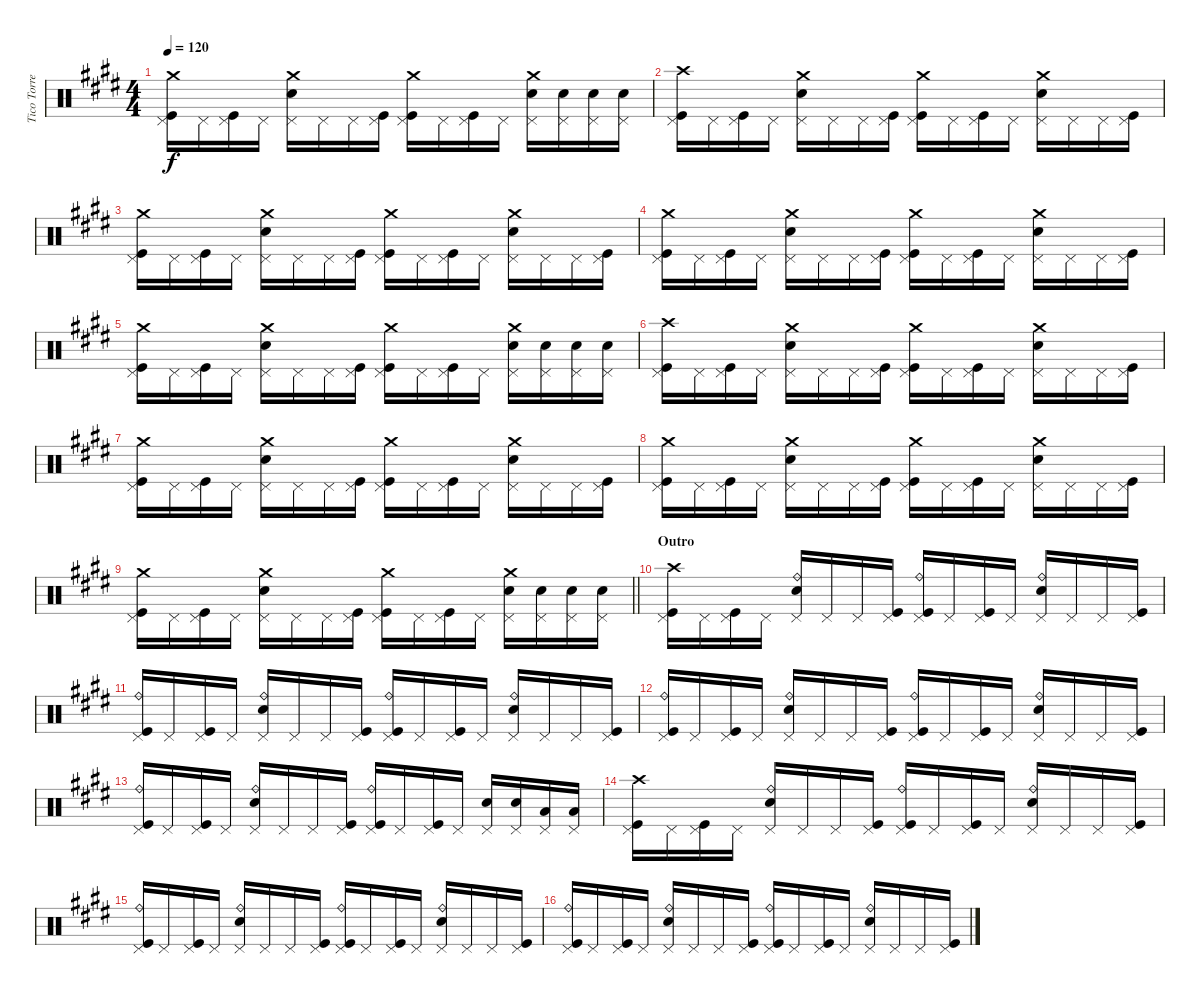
\track ("Tico Torres (Drums)" "Tico Torre") {instrument percussion}
\staff {score}
\articulation defaults
\ts (4 4)
\tempo 120
\clef neutral
\ks c#minor
("Crash medium (hit)" "Pedal Hi-Hat (hit)" "Kick (hit)").16{dy f} "Pedal Hi-Hat (hit)".16 ("Pedal Hi-Hat (hit)" "Kick (hit)").16 "Pedal Hi-Hat (hit)".16 ("Crash medium (hit)" "Electric Snare (hit)" "Pedal Hi-Hat (hit)").16 "Pedal Hi-Hat (hit)".16 "Pedal Hi-Hat (hit)".16 ("Pedal Hi-Hat (hit)" "Kick (hit)").16 ("Crash medium (hit)" "Pedal Hi-Hat (hit)" "Kick (hit)").16 "Pedal Hi-Hat (hit)".16 ("Pedal Hi-Hat (hit)" "Kick (hit)").16 "Pedal Hi-Hat (hit)".16 ("Crash medium (hit)" "Electric Snare (hit)" "Pedal Hi-Hat (hit)").16 ("Electric Snare (hit)" "Pedal Hi-Hat (hit)").16 ("Electric Snare (hit)" "Pedal Hi-Hat (hit)").16 ("Electric Snare (hit)" "Pedal Hi-Hat (hit)").16 |
("Crash high (hit)" "Pedal Hi-Hat (hit)" "Kick (hit)").16 "Pedal Hi-Hat (hit)".16 ("Pedal Hi-Hat (hit)" "Kick (hit)").16 "Pedal Hi-Hat (hit)".16 ("Crash medium (hit)" "Electric Snare (hit)" "Pedal Hi-Hat (hit)").16 "Pedal Hi-Hat (hit)".16 "Pedal Hi-Hat (hit)".16 ("Pedal Hi-Hat (hit)" "Kick (hit)").16 ("Crash medium (hit)" "Pedal Hi-Hat (hit)" "Kick (hit)").16 "Pedal Hi-Hat (hit)".16 ("Pedal Hi-Hat (hit)" "Kick (hit)").16 "Pedal Hi-Hat (hit)".16 ("Crash medium (hit)" "Electric Snare (hit)" "Pedal Hi-Hat (hit)").16 "Pedal Hi-Hat (hit)".16 "Pedal Hi-Hat (hit)".16 ("Pedal Hi-Hat (hit)" "Kick (hit)").16 |
("Crash medium (hit)" "Pedal Hi-Hat (hit)" "Kick (hit)").16 "Pedal Hi-Hat (hit)".16 ("Pedal Hi-Hat (hit)" "Kick (hit)").16 "Pedal Hi-Hat (hit)".16 ("Crash medium (hit)" "Electric Snare (hit)" "Pedal Hi-Hat (hit)").16 "Pedal Hi-Hat (hit)".16 "Pedal Hi-Hat (hit)".16 ("Pedal Hi-Hat (hit)" "Kick (hit)").16 ("Crash medium (hit)" "Pedal Hi-Hat (hit)" "Kick (hit)").16 "Pedal Hi-Hat (hit)".16 ("Pedal Hi-Hat (hit)" "Kick (hit)").16 "Pedal Hi-Hat (hit)".16 ("Crash medium (hit)" "Electric Snare (hit)" "Pedal Hi-Hat (hit)").16 "Pedal Hi-Hat (hit)".16 "Pedal Hi-Hat (hit)".16 ("Pedal Hi-Hat (hit)" "Kick (hit)").16 |
("Crash medium (hit)" "Pedal Hi-Hat (hit)" "Kick (hit)").16 "Pedal Hi-Hat (hit)".16 ("Pedal Hi-Hat (hit)" "Kick (hit)").16 "Pedal Hi-Hat (hit)".16 ("Crash medium (hit)" "Electric Snare (hit)" "Pedal Hi-Hat (hit)").16 "Pedal Hi-Hat (hit)".16 "Pedal Hi-Hat (hit)".16 ("Pedal Hi-Hat (hit)" "Kick (hit)").16 ("Crash medium (hit)" "Pedal Hi-Hat (hit)" "Kick (hit)").16 "Pedal Hi-Hat (hit)".16 ("Pedal Hi-Hat (hit)" "Kick (hit)").16 "Pedal Hi-Hat (hit)".16 ("Crash medium (hit)" "Electric Snare (hit)" "Pedal Hi-Hat (hit)").16 "Pedal Hi-Hat (hit)".16 "Pedal Hi-Hat (hit)".16 ("Pedal Hi-Hat (hit)" "Kick (hit)").16 |
("Crash medium (hit)" "Pedal Hi-Hat (hit)" "Kick (hit)").16 "Pedal Hi-Hat (hit)".16 ("Pedal Hi-Hat (hit)" "Kick (hit)").16 "Pedal Hi-Hat (hit)".16 ("Crash medium (hit)" "Electric Snare (hit)" "Pedal Hi-Hat (hit)").16 "Pedal Hi-Hat (hit)".16 "Pedal Hi-Hat (hit)".16 ("Pedal Hi-Hat (hit)" "Kick (hit)").16 ("Crash medium (hit)" "Pedal Hi-Hat (hit)" "Kick (hit)").16 "Pedal Hi-Hat (hit)".16 ("Pedal Hi-Hat (hit)" "Kick (hit)").16 "Pedal Hi-Hat (hit)".16 ("Crash medium (hit)" "Electric Snare (hit)" "Pedal Hi-Hat (hit)").16 ("Electric Snare (hit)" "Pedal Hi-Hat (hit)").16 ("Electric Snare (hit)" "Pedal Hi-Hat (hit)").16 ("Electric Snare (hit)" "Pedal Hi-Hat (hit)").16 |
("Crash high (hit)" "Pedal Hi-Hat (hit)" "Kick (hit)").16 "Pedal Hi-Hat (hit)".16 ("Pedal Hi-Hat (hit)" "Kick (hit)").16 "Pedal Hi-Hat (hit)".16 ("Crash medium (hit)" "Electric Snare (hit)" "Pedal Hi-Hat (hit)").16 "Pedal Hi-Hat (hit)".16 "Pedal Hi-Hat (hit)".16 ("Pedal Hi-Hat (hit)" "Kick (hit)").16 ("Crash medium (hit)" "Pedal Hi-Hat (hit)" "Kick (hit)").16 "Pedal Hi-Hat (hit)".16 ("Pedal Hi-Hat (hit)" "Kick (hit)").16 "Pedal Hi-Hat (hit)".16 ("Crash medium (hit)" "Electric Snare (hit)" "Pedal Hi-Hat (hit)").16 "Pedal Hi-Hat (hit)".16 "Pedal Hi-Hat (hit)".16 ("Pedal Hi-Hat (hit)" "Kick (hit)").16 |
("Crash medium (hit)" "Pedal Hi-Hat (hit)" "Kick (hit)").16 "Pedal Hi-Hat (hit)".16 ("Pedal Hi-Hat (hit)" "Kick (hit)").16 "Pedal Hi-Hat (hit)".16 ("Crash medium (hit)" "Electric Snare (hit)" "Pedal Hi-Hat (hit)").16 "Pedal Hi-Hat (hit)".16 "Pedal Hi-Hat (hit)".16 ("Pedal Hi-Hat (hit)" "Kick (hit)").16 ("Crash medium (hit)" "Pedal Hi-Hat (hit)" "Kick (hit)").16 "Pedal Hi-Hat (hit)".16 ("Pedal Hi-Hat (hit)" "Kick (hit)").16 "Pedal Hi-Hat (hit)".16 ("Crash medium (hit)" "Electric Snare (hit)" "Pedal Hi-Hat (hit)").16 "Pedal Hi-Hat (hit)".16 "Pedal Hi-Hat (hit)".16 ("Pedal Hi-Hat (hit)" "Kick (hit)").16 |
("Crash medium (hit)" "Pedal Hi-Hat (hit)" "Kick (hit)").16 "Pedal Hi-Hat (hit)".16 ("Pedal Hi-Hat (hit)" "Kick (hit)").16 "Pedal Hi-Hat (hit)".16 ("Crash medium (hit)" "Electric Snare (hit)" "Pedal Hi-Hat (hit)").16 "Pedal Hi-Hat (hit)".16 "Pedal Hi-Hat (hit)".16 ("Pedal Hi-Hat (hit)" "Kick (hit)").16 ("Crash medium (hit)" "Pedal Hi-Hat (hit)" "Kick (hit)").16 "Pedal Hi-Hat (hit)".16 ("Pedal Hi-Hat (hit)" "Kick (hit)").16 "Pedal Hi-Hat (hit)".16 ("Crash medium (hit)" "Electric Snare (hit)" "Pedal Hi-Hat (hit)").16 "Pedal Hi-Hat (hit)".16 "Pedal Hi-Hat (hit)".16 ("Pedal Hi-Hat (hit)" "Kick (hit)").16 |
\barLineRight lightlight
("Crash medium (hit)" "Pedal Hi-Hat (hit)" "Kick (hit)").16 "Pedal Hi-Hat (hit)".16 ("Pedal Hi-Hat (hit)" "Kick (hit)").16 "Pedal Hi-Hat (hit)".16 ("Crash medium (hit)" "Electric Snare (hit)" "Pedal Hi-Hat (hit)").16 "Pedal Hi-Hat (hit)".16 "Pedal Hi-Hat (hit)".16 ("Pedal Hi-Hat (hit)" "Kick (hit)").16 ("Crash medium (hit)" "Pedal Hi-Hat (hit)" "Kick (hit)").16 "Pedal Hi-Hat (hit)".16 ("Pedal Hi-Hat (hit)" "Kick (hit)").16 "Pedal Hi-Hat (hit)".16 ("Crash medium (hit)" "Electric Snare (hit)" "Pedal Hi-Hat (hit)").16 ("Electric Snare (hit)" "Pedal Hi-Hat (hit)").16 ("Electric Snare (hit)" "Pedal Hi-Hat (hit)").16 ("Electric Snare (hit)" "Pedal Hi-Hat (hit)").16 |
\section ("" "Outro")
("Crash high (hit)" "Pedal Hi-Hat (hit)" "Kick (hit)").16 "Pedal Hi-Hat (hit)".16 ("Pedal Hi-Hat (hit)" "Kick (hit)").16 "Pedal Hi-Hat (hit)".16 ("Ride (bell)" "Electric Snare (hit)" "Pedal Hi-Hat (hit)").16 "Pedal Hi-Hat (hit)".16 "Pedal Hi-Hat (hit)".16 ("Pedal Hi-Hat (hit)" "Kick (hit)").16 ("Ride (bell)" "Pedal Hi-Hat (hit)" "Kick (hit)").16 "Pedal Hi-Hat (hit)".16 ("Pedal Hi-Hat (hit)" "Kick (hit)").16 "Pedal Hi-Hat (hit)".16 ("Ride (bell)" "Electric Snare (hit)" "Pedal Hi-Hat (hit)").16 "Pedal Hi-Hat (hit)".16 "Pedal Hi-Hat (hit)".16 ("Pedal Hi-Hat (hit)" "Kick (hit)").16 |
("Ride (bell)" "Pedal Hi-Hat (hit)" "Kick (hit)").16 "Pedal Hi-Hat (hit)".16 ("Pedal Hi-Hat (hit)" "Kick (hit)").16 "Pedal Hi-Hat (hit)".16 ("Ride (bell)" "Electric Snare (hit)" "Pedal Hi-Hat (hit)").16 "Pedal Hi-Hat (hit)".16 "Pedal Hi-Hat (hit)".16 ("Pedal Hi-Hat (hit)" "Kick (hit)").16 ("Ride (bell)" "Pedal Hi-Hat (hit)" "Kick (hit)").16 "Pedal Hi-Hat (hit)".16 ("Pedal Hi-Hat (hit)" "Kick (hit)").16 "Pedal Hi-Hat (hit)".16 ("Ride (bell)" "Electric Snare (hit)" "Pedal Hi-Hat (hit)").16 "Pedal Hi-Hat (hit)".16 "Pedal Hi-Hat (hit)".16 ("Pedal Hi-Hat (hit)" "Kick (hit)").16 |
("Ride (bell)" "Pedal Hi-Hat (hit)" "Kick (hit)").16 "Pedal Hi-Hat (hit)".16 ("Pedal Hi-Hat (hit)" "Kick (hit)").16 "Pedal Hi-Hat (hit)".16 ("Ride (bell)" "Electric Snare (hit)" "Pedal Hi-Hat (hit)").16 "Pedal Hi-Hat (hit)".16 "Pedal Hi-Hat (hit)".16 ("Pedal Hi-Hat (hit)" "Kick (hit)").16 ("Ride (bell)" "Pedal Hi-Hat (hit)" "Kick (hit)").16 "Pedal Hi-Hat (hit)".16 ("Pedal Hi-Hat (hit)" "Kick (hit)").16 "Pedal Hi-Hat (hit)".16 ("Ride (bell)" "Electric Snare (hit)" "Pedal Hi-Hat (hit)").16 "Pedal Hi-Hat (hit)".16 "Pedal Hi-Hat (hit)".16 ("Pedal Hi-Hat (hit)" "Kick (hit)").16 |
("Ride (bell)" "Pedal Hi-Hat (hit)" "Kick (hit)").16 "Pedal Hi-Hat (hit)".16 ("Pedal Hi-Hat (hit)" "Kick (hit)").16 "Pedal Hi-Hat (hit)".16 ("Ride (bell)" "Electric Snare (hit)" "Pedal Hi-Hat (hit)").16 "Pedal Hi-Hat (hit)".16 "Pedal Hi-Hat (hit)".16 ("Pedal Hi-Hat (hit)" "Kick (hit)").16 ("Ride (bell)" "Pedal Hi-Hat (hit)" "Kick (hit)").16 "Pedal Hi-Hat (hit)".16 ("Pedal Hi-Hat (hit)" "Kick (hit)").16 "Pedal Hi-Hat (hit)".16 ("Electric Snare (hit)" "Pedal Hi-Hat (hit)").16 ("Electric Snare (hit)" "Pedal Hi-Hat (hit)").16 ("Low Tom (hit)" "Pedal Hi-Hat (hit)").16 ("Low Tom (hit)" "Pedal Hi-Hat (hit)").16 |
("Crash high (hit)" "Pedal Hi-Hat (hit)" "Kick (hit)").16 "Pedal Hi-Hat (hit)".16 ("Pedal Hi-Hat (hit)" "Kick (hit)").16 "Pedal Hi-Hat (hit)".16 ("Ride (bell)" "Electric Snare (hit)" "Pedal Hi-Hat (hit)").16 "Pedal Hi-Hat (hit)".16 "Pedal Hi-Hat (hit)".16 ("Pedal Hi-Hat (hit)" "Kick (hit)").16 ("Ride (bell)" "Pedal Hi-Hat (hit)" "Kick (hit)").16 "Pedal Hi-Hat (hit)".16 ("Pedal Hi-Hat (hit)" "Kick (hit)").16 "Pedal Hi-Hat (hit)".16 ("Ride (bell)" "Electric Snare (hit)" "Pedal Hi-Hat (hit)").16 "Pedal Hi-Hat (hit)".16 "Pedal Hi-Hat (hit)".16 ("Pedal Hi-Hat (hit)" "Kick (hit)").16 |
("Ride (bell)" "Pedal Hi-Hat (hit)" "Kick (hit)").16 "Pedal Hi-Hat (hit)".16 ("Pedal Hi-Hat (hit)" "Kick (hit)").16 "Pedal Hi-Hat (hit)".16 ("Ride (bell)" "Electric Snare (hit)" "Pedal Hi-Hat (hit)").16 "Pedal Hi-Hat (hit)".16 "Pedal Hi-Hat (hit)".16 ("Pedal Hi-Hat (hit)" "Kick (hit)").16 ("Ride (bell)" "Pedal Hi-Hat (hit)" "Kick (hit)").16 "Pedal Hi-Hat (hit)".16 ("Pedal Hi-Hat (hit)" "Kick (hit)").16 "Pedal Hi-Hat (hit)".16 ("Ride (bell)" "Electric Snare (hit)" "Pedal Hi-Hat (hit)").16 "Pedal Hi-Hat (hit)".16 "Pedal Hi-Hat (hit)".16 ("Pedal Hi-Hat (hit)" "Kick (hit)").16 |
("Ride (bell)" "Pedal Hi-Hat (hit)" "Kick (hit)").16 "Pedal Hi-Hat (hit)".16 ("Pedal Hi-Hat (hit)" "Kick (hit)").16 "Pedal Hi-Hat (hit)".16 ("Ride (bell)" "Electric Snare (hit)" "Pedal Hi-Hat (hit)").16 "Pedal Hi-Hat (hit)".16 "Pedal Hi-Hat (hit)".16 ("Pedal Hi-Hat (hit)" "Kick (hit)").16 ("Ride (bell)" "Pedal Hi-Hat (hit)" "Kick (hit)").16 "Pedal Hi-Hat (hit)".16 ("Pedal Hi-Hat (hit)" "Kick (hit)").16 "Pedal Hi-Hat (hit)".16 ("Ride (bell)" "Electric Snare (hit)" "Pedal Hi-Hat (hit)").16 "Pedal Hi-Hat (hit)".16 "Pedal Hi-Hat (hit)".16 ("Pedal Hi-Hat (hit)" "Kick (hit)").16
